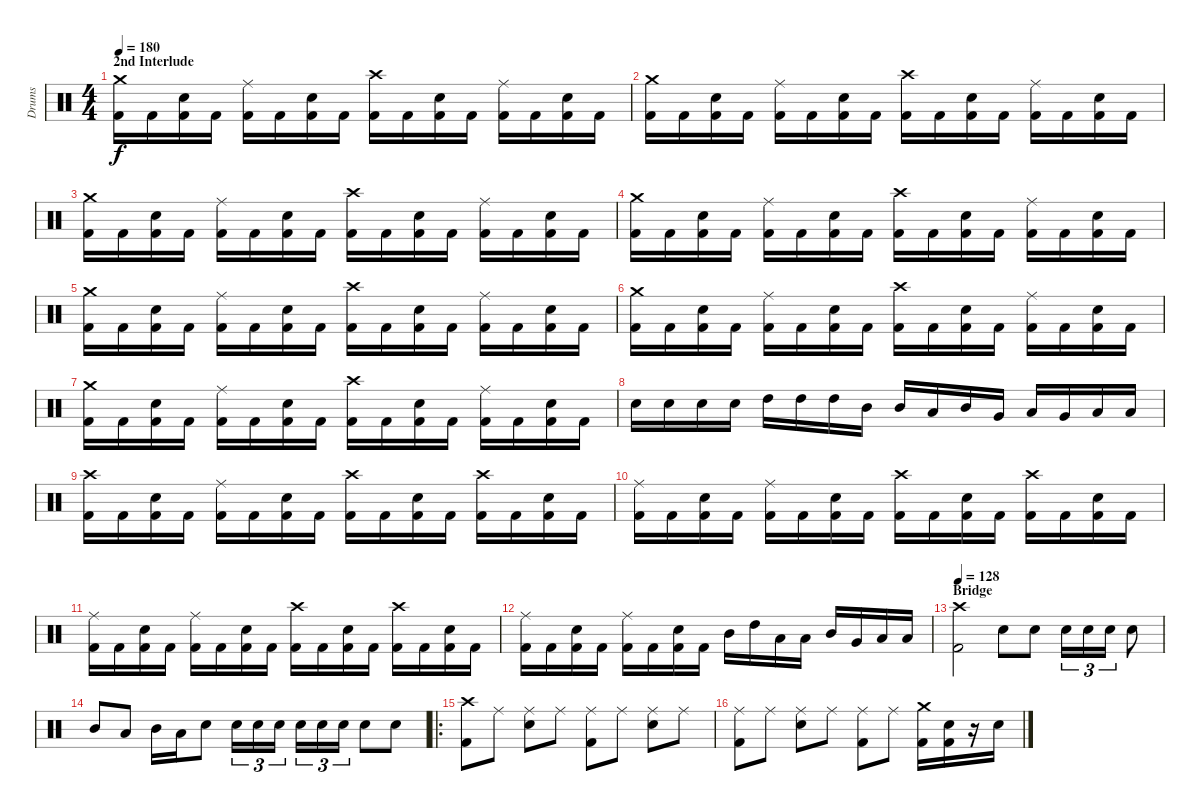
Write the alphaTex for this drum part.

\track ("Drums" "Drums") {instrument percussion}
\staff {score}
\articulation defaults
\ts (4 4)
\section ("" "2nd Interlude")
\tempo 180
\clef neutral
\ks c
("Crash medium (hit)" "Kick (hit) 2").16{dy f} "Kick (hit) 2".16 ("Electric Snare (hit)" "Kick (hit) 2").16 "Kick (hit) 2".16 ("Ride (middle)" "Kick (hit) 2").16 "Kick (hit) 2".16 ("Electric Snare (hit)" "Kick (hit) 2").16 "Kick (hit) 2".16 ("Crash high (hit)" "Kick (hit) 2").16 "Kick (hit) 2".16 ("Electric Snare (hit)" "Kick (hit) 2").16 "Kick (hit) 2".16 ("Ride (middle)" "Kick (hit) 2").16 "Kick (hit) 2".16 ("Electric Snare (hit)" "Kick (hit) 2").16 "Kick (hit) 2".16 |
("Crash medium (hit)" "Kick (hit) 2").16 "Kick (hit) 2".16 ("Electric Snare (hit)" "Kick (hit) 2").16 "Kick (hit) 2".16 ("Ride (middle)" "Kick (hit) 2").16 "Kick (hit) 2".16 ("Electric Snare (hit)" "Kick (hit) 2").16 "Kick (hit) 2".16 ("Crash high (hit)" "Kick (hit) 2").16 "Kick (hit) 2".16 ("Electric Snare (hit)" "Kick (hit) 2").16 "Kick (hit) 2".16 ("Ride (middle)" "Kick (hit) 2").16 "Kick (hit) 2".16 ("Electric Snare (hit)" "Kick (hit) 2").16 "Kick (hit) 2".16 |
("Crash medium (hit)" "Kick (hit) 2").16 "Kick (hit) 2".16 ("Electric Snare (hit)" "Kick (hit) 2").16 "Kick (hit) 2".16 ("Ride (middle)" "Kick (hit) 2").16 "Kick (hit) 2".16 ("Electric Snare (hit)" "Kick (hit) 2").16 "Kick (hit) 2".16 ("Crash high (hit)" "Kick (hit) 2").16 "Kick (hit) 2".16 ("Electric Snare (hit)" "Kick (hit) 2").16 "Kick (hit) 2".16 ("Ride (middle)" "Kick (hit) 2").16 "Kick (hit) 2".16 ("Electric Snare (hit)" "Kick (hit) 2").16 "Kick (hit) 2".16 |
("Crash medium (hit)" "Kick (hit) 2").16 "Kick (hit) 2".16 ("Electric Snare (hit)" "Kick (hit) 2").16 "Kick (hit) 2".16 ("Ride (middle)" "Kick (hit) 2").16 "Kick (hit) 2".16 ("Electric Snare (hit)" "Kick (hit) 2").16 "Kick (hit) 2".16 ("Crash high (hit)" "Kick (hit) 2").16 "Kick (hit) 2".16 ("Electric Snare (hit)" "Kick (hit) 2").16 "Kick (hit) 2".16 ("Ride (middle)" "Kick (hit) 2").16 "Kick (hit) 2".16 ("Electric Snare (hit)" "Kick (hit) 2").16 "Kick (hit) 2".16 |
("Crash medium (hit)" "Kick (hit) 2").16 "Kick (hit) 2".16 ("Electric Snare (hit)" "Kick (hit) 2").16 "Kick (hit) 2".16 ("Ride (middle)" "Kick (hit) 2").16 "Kick (hit) 2".16 ("Electric Snare (hit)" "Kick (hit) 2").16 "Kick (hit) 2".16 ("Crash high (hit)" "Kick (hit) 2").16 "Kick (hit) 2".16 ("Electric Snare (hit)" "Kick (hit) 2").16 "Kick (hit) 2".16 ("Ride (middle)" "Kick (hit) 2").16 "Kick (hit) 2".16 ("Electric Snare (hit)" "Kick (hit) 2").16 "Kick (hit) 2".16 |
("Crash medium (hit)" "Kick (hit) 2").16 "Kick (hit) 2".16 ("Electric Snare (hit)" "Kick (hit) 2").16 "Kick (hit) 2".16 ("Ride (middle)" "Kick (hit) 2").16 "Kick (hit) 2".16 ("Electric Snare (hit)" "Kick (hit) 2").16 "Kick (hit) 2".16 ("Crash high (hit)" "Kick (hit) 2").16 "Kick (hit) 2".16 ("Electric Snare (hit)" "Kick (hit) 2").16 "Kick (hit) 2".16 ("Ride (middle)" "Kick (hit) 2").16 "Kick (hit) 2".16 ("Electric Snare (hit)" "Kick (hit) 2").16 "Kick (hit) 2".16 |
("Crash medium (hit)" "Kick (hit) 2").16 "Kick (hit) 2".16 ("Electric Snare (hit)" "Kick (hit) 2").16 "Kick (hit) 2".16 ("Ride (middle)" "Kick (hit) 2").16 "Kick (hit) 2".16 ("Electric Snare (hit)" "Kick (hit) 2").16 "Kick (hit) 2".16 ("Crash high (hit)" "Kick (hit) 2").16 "Kick (hit) 2".16 ("Electric Snare (hit)" "Kick (hit) 2").16 "Kick (hit) 2".16 ("Ride (middle)" "Kick (hit) 2").16 "Kick (hit) 2".16 ("Electric Snare (hit)" "Kick (hit) 2").16 "Kick (hit) 2".16 |
"Electric Snare (hit)".16 "Electric Snare (hit)".16 "Electric Snare (hit)".16 "Electric Snare (hit)".16 "High Tom (hit)".16 "High Tom (hit)".16 "High Tom (hit)".16 "Mid Tom (hit)".16 "Mid Tom (hit)".16 "Low Tom (hit)".16 "Mid Tom (hit)".16 "Very Low Tom (hit)".16 "Low Tom (hit)".16 "Very Low Tom (hit)".16 "Low Tom (hit)".16 "Low Floor Tom (hit)".16 |
("Crash high (hit)" "Kick (hit) 2").16 "Kick (hit) 2".16 ("Electric Snare (hit)" "Kick (hit) 2").16 "Kick (hit) 2".16 ("Ride (middle)" "Kick (hit) 2").16 "Kick (hit) 2".16 ("Electric Snare (hit)" "Kick (hit) 2").16 "Kick (hit) 2".16 ("Crash high (hit)" "Kick (hit) 2").16 "Kick (hit) 2".16 ("Electric Snare (hit)" "Kick (hit) 2").16 "Kick (hit) 2".16 ("Crash high (hit)" "Kick (hit) 2").16 "Kick (hit) 2".16 ("Electric Snare (hit)" "Kick (hit) 2").16 "Kick (hit) 2".16 |
("Ride (middle)" "Kick (hit) 2").16 "Kick (hit) 2".16 ("Electric Snare (hit)" "Kick (hit) 2").16 "Kick (hit) 2".16 ("Ride (middle)" "Kick (hit) 2").16 "Kick (hit) 2".16 ("Electric Snare (hit)" "Kick (hit) 2").16 "Kick (hit) 2".16 ("Crash high (hit)" "Kick (hit) 2").16 "Kick (hit) 2".16 ("Electric Snare (hit)" "Kick (hit) 2").16 "Kick (hit) 2".16 ("Crash high (hit)" "Kick (hit) 2").16 "Kick (hit) 2".16 ("Electric Snare (hit)" "Kick (hit) 2").16 "Kick (hit) 2".16 |
("Ride (middle)" "Kick (hit) 2").16 "Kick (hit) 2".16 ("Electric Snare (hit)" "Kick (hit) 2").16 "Kick (hit) 2".16 ("Ride (middle)" "Kick (hit) 2").16 "Kick (hit) 2".16 ("Electric Snare (hit)" "Kick (hit) 2").16 "Kick (hit) 2".16 ("Crash high (hit)" "Kick (hit) 2").16 "Kick (hit) 2".16 ("Electric Snare (hit)" "Kick (hit) 2").16 "Kick (hit) 2".16 ("Crash high (hit)" "Kick (hit) 2").16 "Kick (hit) 2".16 ("Electric Snare (hit)" "Kick (hit) 2").16 "Kick (hit) 2".16 |
("Ride (middle)" "Kick (hit) 2").16 "Kick (hit) 2".16 ("Electric Snare (hit)" "Kick (hit) 2").16 "Kick (hit) 2".16 ("Ride (middle)" "Kick (hit) 2").16 "Kick (hit) 2".16 ("Electric Snare (hit)" "Kick (hit) 2").16 "Kick (hit) 2".16 "Mid Tom (hit)".16 "High Tom (hit)".16 "Low Tom (hit)".16 "Low Tom (hit)".16 "Mid Tom (hit)".16 "Very Low Tom (hit)".16 "Low Tom (hit)".16 "Low Floor Tom (hit)".16 |
\section ("" "Bridge")
\tempo 128
("Crash high (hit)" "Kick (hit) 2").2 "Electric Snare (hit)".8 "Electric Snare (hit)".8 "Electric Snare (hit)".16{tu (3 2)} "Electric Snare (hit)".16{tu (3 2)} "Electric Snare (hit)".16{tu (3 2)} "Electric Snare (hit)".8 |
"Mid Tom (hit)".8 "Low Tom (hit)".8 "Mid Tom (hit)".16 "Low Tom (hit)".16 "Electric Snare (hit)".8 "Electric Snare (hit)".16{tu (3 2)} "Electric Snare (hit)".16{tu (3 2)} "Electric Snare (hit)".16{tu (3 2)} "Electric Snare (hit)".16{tu (3 2)} "Electric Snare (hit)".16{tu (3 2)} "Electric Snare (hit)".16{tu (3 2)} "Electric Snare (hit)".8 "Electric Snare (hit)".8 |
\ro
("Crash high (hit)" "Kick (hit) 2").8 "Ride (middle)".8 ("Ride (middle)" "Electric Snare (hit)").8 "Ride (middle)".8 ("Ride (middle)" "Kick (hit) 2").8 "Ride (middle)".8 ("Ride (middle)" "Electric Snare (hit)").8 "Ride (middle)".8 |
("Ride (middle)" "Kick (hit) 2").8 "Ride (middle)".8 ("Ride (middle)" "Electric Snare (hit)").8 "Ride (middle)".8 ("Ride (middle)" "Kick (hit) 2").8 "Ride (middle)".8 ("Crash medium (hit)" "Kick (hit) 2").16 ("Electric Snare (hit)" "Kick (hit) 2").16 r.16 "Electric Snare (hit)".16
